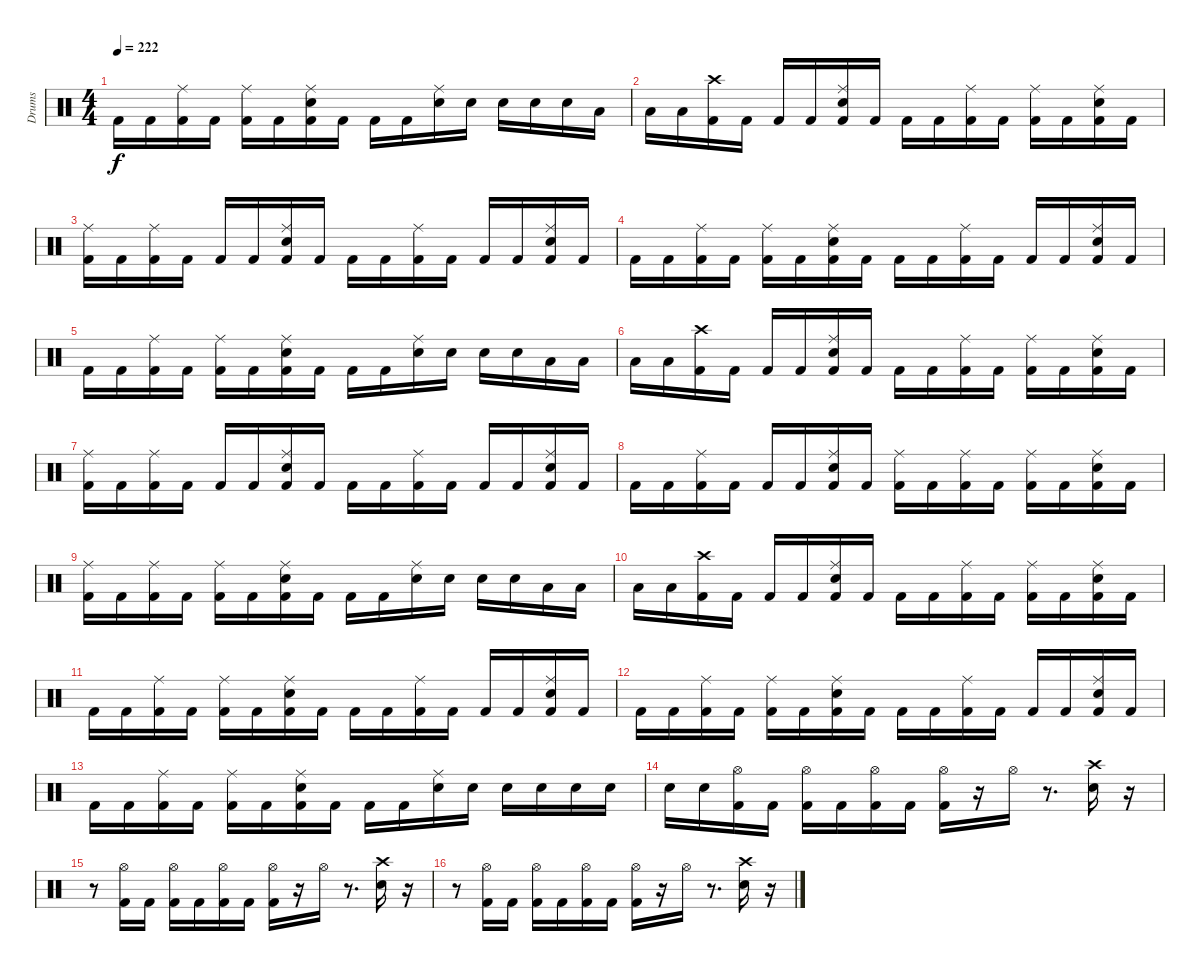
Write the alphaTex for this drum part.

\track ("Drums" "Drums") {instrument percussion}
\staff {score}
\articulation defaults
\ts (4 4)
\tempo 222
\clef neutral
\ks c "Kick (hit) 2".16{dy f} "Kick (hit) 2".16
("Kick (hit) 2" "Ride (middle)").16 "Kick (hit) 2".16 ("Kick (hit) 2" "Ride (middle)").16 "Kick (hit) 2".16 ("Kick (hit) 2" "Snare (hit) 2" "Ride (middle)").16 "Kick (hit) 2".16 "Kick (hit) 2".16 "Kick (hit) 2".16 ("Snare (hit) 2" "Ride (middle)").16 "Snare (hit) 2".16 "Snare (hit) 2".16 "Snare (hit) 2".16 "Snare (hit) 2".16 "Low Floor Tom (hit)".16 |
"Low Floor Tom (hit)".16 "Low Floor Tom (hit)".16 ("Kick (hit) 2" "Crash high (hit)").16 "Kick (hit) 2".16 "Kick (hit) 2".16 "Kick (hit) 2".16 ("Kick (hit) 2" "Snare (hit) 2" "Ride (middle)").16 "Kick (hit) 2".16 "Kick (hit) 2".16 "Kick (hit) 2".16 ("Kick (hit) 2" "Ride (middle)").16 "Kick (hit) 2".16 ("Kick (hit) 2" "Ride (middle)").16 "Kick (hit) 2".16 ("Kick (hit) 2" "Snare (hit) 2" "Ride (middle)").16 "Kick (hit) 2".16 |
("Kick (hit) 2" "Ride (middle)").16 "Kick (hit) 2".16 ("Kick (hit) 2" "Ride (middle)").16 "Kick (hit) 2".16 "Kick (hit) 2".16 "Kick (hit) 2".16 ("Kick (hit) 2" "Snare (hit) 2" "Ride (middle)").16 "Kick (hit) 2".16 "Kick (hit) 2".16 "Kick (hit) 2".16 ("Kick (hit) 2" "Ride (middle)").16 "Kick (hit) 2".16 "Kick (hit) 2".16 "Kick (hit) 2".16 ("Kick (hit) 2" "Snare (hit) 2" "Ride (middle)").16 "Kick (hit) 2".16 |
"Kick (hit) 2".16 "Kick (hit) 2".16 ("Kick (hit) 2" "Ride (middle)").16 "Kick (hit) 2".16 ("Kick (hit) 2" "Ride (middle)").16 "Kick (hit) 2".16 ("Kick (hit) 2" "Snare (hit) 2" "Ride (middle)").16 "Kick (hit) 2".16 "Kick (hit) 2".16 "Kick (hit) 2".16 ("Kick (hit) 2" "Ride (middle)").16 "Kick (hit) 2".16 "Kick (hit) 2".16 "Kick (hit) 2".16 ("Kick (hit) 2" "Snare (hit) 2" "Ride (middle)").16 "Kick (hit) 2".16 |
"Kick (hit) 2".16 "Kick (hit) 2".16 ("Kick (hit) 2" "Ride (middle)").16 "Kick (hit) 2".16 ("Kick (hit) 2" "Ride (middle)").16 "Kick (hit) 2".16 ("Kick (hit) 2" "Snare (hit) 2" "Ride (middle)").16 "Kick (hit) 2".16 "Kick (hit) 2".16 "Kick (hit) 2".16 ("Snare (hit) 2" "Ride (middle)").16 "Snare (hit) 2".16 "Snare (hit) 2".16 "Snare (hit) 2".16 "Low Tom (hit)".16 "Low Tom (hit)".16 |
"Low Floor Tom (hit)".16 "Low Floor Tom (hit)".16 ("Kick (hit) 2" "Crash high (hit)").16 "Kick (hit) 2".16 "Kick (hit) 2".16 "Kick (hit) 2".16 ("Kick (hit) 2" "Snare (hit) 2" "Ride (middle)").16 "Kick (hit) 2".16 "Kick (hit) 2".16 "Kick (hit) 2".16 ("Kick (hit) 2" "Ride (middle)").16 "Kick (hit) 2".16 ("Kick (hit) 2" "Ride (middle)").16 "Kick (hit) 2".16 ("Kick (hit) 2" "Snare (hit) 2" "Ride (middle)").16 "Kick (hit) 2".16 |
("Kick (hit) 2" "Ride (middle)").16 "Kick (hit) 2".16 ("Kick (hit) 2" "Ride (middle)").16 "Kick (hit) 2".16 "Kick (hit) 2".16 "Kick (hit) 2".16 ("Kick (hit) 2" "Snare (hit) 2" "Ride (middle)").16 "Kick (hit) 2".16 "Kick (hit) 2".16 "Kick (hit) 2".16 ("Kick (hit) 2" "Ride (middle)").16 "Kick (hit) 2".16 "Kick (hit) 2".16 "Kick (hit) 2".16 ("Kick (hit) 2" "Snare (hit) 2" "Ride (middle)").16 "Kick (hit) 2".16 |
"Kick (hit) 2".16 "Kick (hit) 2".16 ("Kick (hit) 2" "Ride (middle)").16 "Kick (hit) 2".16 "Kick (hit) 2".16 "Kick (hit) 2".16 ("Kick (hit) 2" "Snare (hit) 2" "Ride (middle)").16 "Kick (hit) 2".16 ("Kick (hit) 2" "Ride (middle)").16 "Kick (hit) 2".16 ("Kick (hit) 2" "Ride (middle)").16 "Kick (hit) 2".16 ("Kick (hit) 2" "Ride (middle)").16 "Kick (hit) 2".16 ("Kick (hit) 2" "Snare (hit) 2" "Ride (middle)").16 "Kick (hit) 2".16 |
("Kick (hit) 2" "Ride (middle)").16 "Kick (hit) 2".16 ("Kick (hit) 2" "Ride (middle)").16 "Kick (hit) 2".16 ("Kick (hit) 2" "Ride (middle)").16 "Kick (hit) 2".16 ("Kick (hit) 2" "Snare (hit) 2" "Ride (middle)").16 "Kick (hit) 2".16 "Kick (hit) 2".16 "Kick (hit) 2".16 ("Snare (hit) 2" "Ride (middle)").16 "Snare (hit) 2".16 "Snare (hit) 2".16 "Snare (hit) 2".16 "Low Tom (hit)".16 "Low Tom (hit)".16 |
"Low Floor Tom (hit)".16 "Low Floor Tom (hit)".16 ("Kick (hit) 2" "Crash high (hit)").16 "Kick (hit) 2".16 "Kick (hit) 2".16 "Kick (hit) 2".16 ("Kick (hit) 2" "Snare (hit) 2" "Ride (middle)").16 "Kick (hit) 2".16 "Kick (hit) 2".16 "Kick (hit) 2".16 ("Kick (hit) 2" "Ride (middle)").16 "Kick (hit) 2".16 ("Kick (hit) 2" "Ride (middle)").16 "Kick (hit) 2".16 ("Kick (hit) 2" "Snare (hit) 2" "Ride (middle)").16 "Kick (hit) 2".16 |
"Kick (hit) 2".16 "Kick (hit) 2".16 ("Kick (hit) 2" "Ride (middle)").16 "Kick (hit) 2".16 ("Kick (hit) 2" "Ride (middle)").16 "Kick (hit) 2".16 ("Kick (hit) 2" "Snare (hit) 2" "Ride (middle)").16 "Kick (hit) 2".16 "Kick (hit) 2".16 "Kick (hit) 2".16 ("Kick (hit) 2" "Ride (middle)").16 "Kick (hit) 2".16 "Kick (hit) 2".16 "Kick (hit) 2".16 ("Kick (hit) 2" "Snare (hit) 2" "Ride (middle)").16 "Kick (hit) 2".16 |
"Kick (hit) 2".16 "Kick (hit) 2".16 ("Kick (hit) 2" "Ride (middle)").16 "Kick (hit) 2".16 ("Kick (hit) 2" "Ride (middle)").16 "Kick (hit) 2".16 ("Kick (hit) 2" "Snare (hit) 2" "Ride (middle)").16 "Kick (hit) 2".16 "Kick (hit) 2".16 "Kick (hit) 2".16 ("Kick (hit) 2" "Ride (middle)").16 "Kick (hit) 2".16 "Kick (hit) 2".16 "Kick (hit) 2".16 ("Kick (hit) 2" "Snare (hit) 2" "Ride (middle)").16 "Kick (hit) 2".16 |
"Kick (hit) 2".16 "Kick (hit) 2".16 ("Kick (hit) 2" "Ride (middle)").16 "Kick (hit) 2".16 ("Kick (hit) 2" "Ride (middle)").16 "Kick (hit) 2".16 ("Kick (hit) 2" "Snare (hit) 2" "Ride (middle)").16 "Kick (hit) 2".16 "Kick (hit) 2".16 "Kick (hit) 2".16 ("Snare (hit) 2" "Ride (middle)").16 "Snare (hit) 2".16 "Snare (hit) 2".16 "Snare (hit) 2".16 "Snare (hit) 2".16 "Snare (hit) 2".16 |
"Snare (hit) 2".16 "Snare (hit) 2".16 ("Kick (hit) 2" "Hi-Hat (open)").16 "Kick (hit) 2".16 ("Kick (hit) 2" "Hi-Hat (open)").16 "Kick (hit) 2".16 ("Kick (hit) 2" "Hi-Hat (open)").16 "Kick (hit) 2".16 ("Kick (hit) 2" "Hi-Hat (open)").16 r.16 "Hi-Hat (open)".16 r.8{d} ("Snare (hit) 2" "Crash high (hit)").16 r.16 |
r.8 ("Kick (hit) 2" "Hi-Hat (open)").16 "Kick (hit) 2".16 ("Kick (hit) 2" "Hi-Hat (open)").16 "Kick (hit) 2".16 ("Kick (hit) 2" "Hi-Hat (open)").16 "Kick (hit) 2".16 ("Kick (hit) 2" "Hi-Hat (open)").16 r.16 "Hi-Hat (open)".16 r.8{d} ("Snare (hit) 2" "Crash high (hit)").16 r.16 |
r.8 ("Kick (hit) 2" "Hi-Hat (open)").16 "Kick (hit) 2".16 ("Kick (hit) 2" "Hi-Hat (open)").16 "Kick (hit) 2".16 ("Kick (hit) 2" "Hi-Hat (open)").16 "Kick (hit) 2".16 ("Kick (hit) 2" "Hi-Hat (open)").16 r.16 "Hi-Hat (open)".16 r.8{d} ("Snare (hit) 2" "Crash high (hit)").16 r.16
